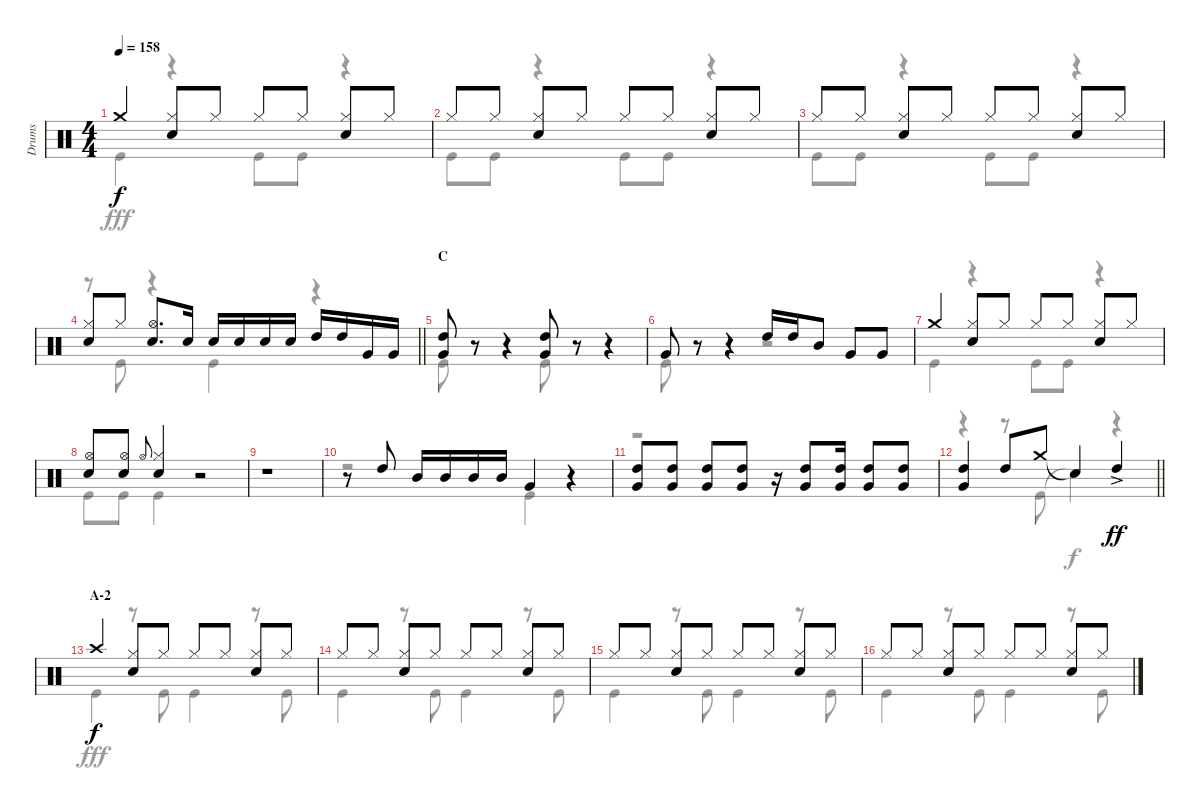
\track ("Drums" "Drums") {instrument percussion}
\staff {score}
\articulation defaults
\voice
\ts (4 4)
\tempo 158
\clef neutral
\ks c "Crash medium (hit)".4{dy f}
("Hi-Hat (closed)" "Snare (hit) 2").8 "Hi-Hat (closed)".8 "Hi-Hat (closed)".8 "Hi-Hat (closed)".8 ("Hi-Hat (closed)" "Snare (hit) 2").8 "Hi-Hat (closed)".8 |
"Hi-Hat (closed)".8 "Hi-Hat (closed)".8 ("Hi-Hat (closed)" "Snare (hit) 2").8 "Hi-Hat (closed)".8 "Hi-Hat (closed)".8 "Hi-Hat (closed)".8 ("Hi-Hat (closed)" "Snare (hit) 2").8 "Hi-Hat (closed)".8 |
"Hi-Hat (closed)".8 "Hi-Hat (closed)".8 ("Hi-Hat (closed)" "Snare (hit) 2").8 "Hi-Hat (closed)".8 "Hi-Hat (closed)".8 "Hi-Hat (closed)".8 ("Hi-Hat (closed)" "Snare (hit) 2").8 "Hi-Hat (closed)".8 |
\barLineRight lightlight
("Hi-Hat (closed)" "Snare (hit) 2").8 "Hi-Hat (closed)".8 ("Hi-Hat (open)" "Snare (hit) 2").8{d} "Snare (hit) 2".16 "Snare (hit) 2".16 "Snare (hit) 2".16 "Snare (hit) 2".16 "Snare (hit) 2".16 "High Tom (hit)".16 "High Tom (hit)".16 "Very Low Tom (hit)".16 "Very Low Tom (hit)".16 |
\section ("" "C")
("High Tom (hit)" "Very Low Tom (hit)").8 r.8 r.4 ("High Tom (hit)" "Very Low Tom (hit)").8 r.8 r.4 |
"Very Low Tom (hit)".8 r.8 r.4 "High Tom (hit)".16 "High Tom (hit)".16 "Mid Tom (hit)".8 "Very Low Tom (hit)".8 "Very Low Tom (hit)".8 |
"Crash medium (hit)".4 ("Hi-Hat (closed)" "Snare (hit) 2").8 "Hi-Hat (closed)".8 "Hi-Hat (closed)".8 "Hi-Hat (closed)".8 ("Hi-Hat (closed)" "Snare (hit) 2").8 "Hi-Hat (closed)".8 |
("Hi-Hat (open)" "Snare (hit) 2").8 ("Hi-Hat (open)" "Snare (hit) 2").8 "Hi-Hat (open)".8{gr onbeat} ("Hi-Hat (closed)" "Snare (hit) 2").4 r.2 |
r.1 |
r.8 "High Tom (hit)".8 "Mid Tom (hit)".16 "Mid Tom (hit)".16 "Mid Tom (hit)".16 "Mid Tom (hit)".16 "Very Low Tom (hit)".4 r.4 |
("High Tom (hit)" "Very Low Tom (hit)").8 ("High Tom (hit)" "Very Low Tom (hit)").8 ("High Tom (hit)" "Very Low Tom (hit)").8 ("High Tom (hit)" "Very Low Tom (hit)").8 r.16 ("High Tom (hit)" "Very Low Tom (hit)").8 ("High Tom (hit)" "Very Low Tom (hit)").16 ("High Tom (hit)" "Very Low Tom (hit)").8 ("High Tom (hit)" "Very Low Tom (hit)").8 |
\barLineRight lightlight
("High Tom (hit)" "Very Low Tom (hit)").4 "High Tom (hit)".8 "Crash medium (hit)".8 "Snare (hit)"{t}.4 "High Tom (hit)"{ac}.4{dy ff} |
\section ("" "A-2")
"Crash high (hit)".4{dy f} ("Hi-Hat (closed)" "Snare (hit) 2").8 "Hi-Hat (closed)".8 "Hi-Hat (closed)".8 "Hi-Hat (closed)".8 ("Hi-Hat (closed)" "Snare (hit) 2").8 "Hi-Hat (closed)".8 |
"Hi-Hat (closed)".8 "Hi-Hat (closed)".8 ("Hi-Hat (closed)" "Snare (hit) 2").8 "Hi-Hat (closed)".8 "Hi-Hat (closed)".8 "Hi-Hat (closed)".8 ("Hi-Hat (closed)" "Snare (hit) 2").8 "Hi-Hat (closed)".8 |
"Hi-Hat (closed)".8 "Hi-Hat (closed)".8 ("Hi-Hat (closed)" "Snare (hit) 2").8 "Hi-Hat (closed)".8 "Hi-Hat (closed)".8 "Hi-Hat (closed)".8 ("Hi-Hat (closed)" "Snare (hit) 2").8 "Hi-Hat (closed)".8 |
"Hi-Hat (closed)".8 "Hi-Hat (closed)".8 ("Hi-Hat (closed)" "Snare (hit) 2").8 "Hi-Hat (closed)".8 "Hi-Hat (closed)".8 "Hi-Hat (closed)".8 ("Hi-Hat (closed)" "Snare (hit) 2").8 "Hi-Hat (closed)".8
\voice
\clef neutral
\ottava regular
\simile none
\ks c "Kick (hit)".4{dy fff}
r.4 "Kick (hit)".8 "Kick (hit)".8 r.4 |
"Kick (hit)".8 "Kick (hit)".8 r.4 "Kick (hit)".8 "Kick (hit)".8 r.4 |
"Kick (hit)".8 "Kick (hit)".8 r.4 "Kick (hit)".8 "Kick (hit)".8 r.4 |
\barLineRight lightlight
r.8 "Kick (hit)".8 r.4 "Kick (hit)".4 r.4 |
"Kick (hit)".8 r.8 r.4 "Kick (hit)".8 r.8 r.4 |
"Kick (hit)".8 r.8 r.4 r.2 |
"Kick (hit)".4 r.4 "Kick (hit)".8 "Kick (hit)".8 r.4 |
"Kick (hit)".8 "Kick (hit)".8 "Kick (hit)".4 r.2 |
r.1 |
r.2 "Kick (hit)".4 r.4 |
r.1 |
\barLineRight lightlight
r.4 r.8 "Kick (hit)".8 "Snare (hit)"{t}.4{dy f} r.4 |
"Kick (hit)".4{dy fff} r.8 "Kick (hit)".8 "Kick (hit)".4 r.8 "Kick (hit)".8 |
"Kick (hit)".4 r.8 "Kick (hit)".8 "Kick (hit)".4 r.8 "Kick (hit)".8 |
"Kick (hit)".4 r.8 "Kick (hit)".8 "Kick (hit)".4 r.8 "Kick (hit)".8 |
"Kick (hit)".4 r.8 "Kick (hit)".8 "Kick (hit)".4 r.8 "Kick (hit)".8
